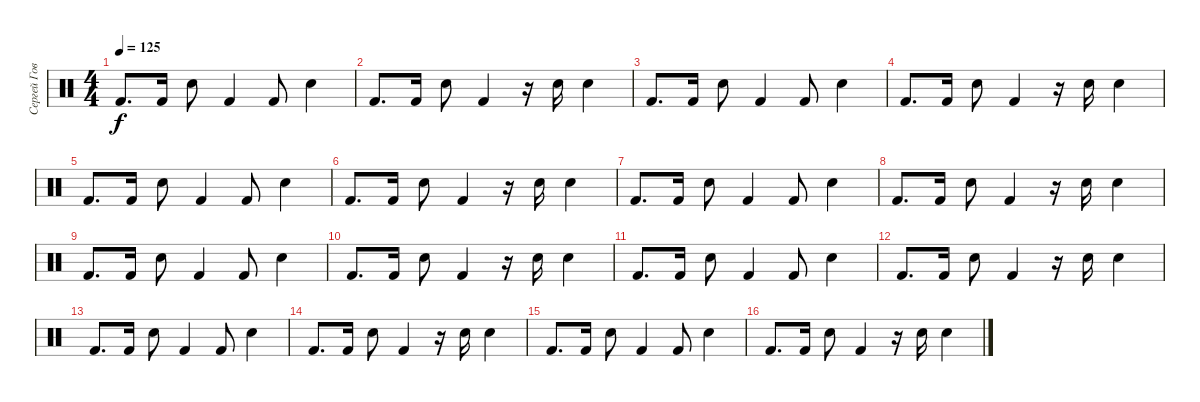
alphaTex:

\track ("Сергей Говорун" "Сергей Гов") {instrument percussion}
\staff {score}
\articulation defaults
\ts (4 4)
\tempo 125
\clef neutral
\ks c "Kick (hit) 2".8{d dy f} "Kick (hit) 2".16 "Electric Snare (hit)".8 "Kick (hit) 2".4 "Kick (hit) 2".8 "Electric Snare (hit)".4
|
"Kick (hit) 2".8{d} "Kick (hit) 2".16 "Electric Snare (hit)".8 "Kick (hit) 2".4 r.16 "Electric Snare (hit)".16 "Electric Snare (hit)".4 |
"Kick (hit) 2".8{d} "Kick (hit) 2".16 "Electric Snare (hit)".8 "Kick (hit) 2".4 "Kick (hit) 2".8 "Electric Snare (hit)".4 |
"Kick (hit) 2".8{d} "Kick (hit) 2".16 "Electric Snare (hit)".8 "Kick (hit) 2".4 r.16 "Electric Snare (hit)".16 "Electric Snare (hit)".4 |
"Kick (hit) 2".8{d} "Kick (hit) 2".16 "Electric Snare (hit)".8 "Kick (hit) 2".4 "Kick (hit) 2".8 "Electric Snare (hit)".4 |
"Kick (hit) 2".8{d} "Kick (hit) 2".16 "Electric Snare (hit)".8 "Kick (hit) 2".4 r.16 "Electric Snare (hit)".16 "Electric Snare (hit)".4 |
"Kick (hit) 2".8{d} "Kick (hit) 2".16 "Electric Snare (hit)".8 "Kick (hit) 2".4 "Kick (hit) 2".8 "Electric Snare (hit)".4 |
"Kick (hit) 2".8{d} "Kick (hit) 2".16 "Electric Snare (hit)".8 "Kick (hit) 2".4 r.16 "Electric Snare (hit)".16 "Electric Snare (hit)".4 |
"Kick (hit) 2".8{d} "Kick (hit) 2".16 "Electric Snare (hit)".8 "Kick (hit) 2".4 "Kick (hit) 2".8 "Electric Snare (hit)".4 |
"Kick (hit) 2".8{d} "Kick (hit) 2".16 "Electric Snare (hit)".8 "Kick (hit) 2".4 r.16 "Electric Snare (hit)".16 "Electric Snare (hit)".4 |
"Kick (hit) 2".8{d} "Kick (hit) 2".16 "Electric Snare (hit)".8 "Kick (hit) 2".4 "Kick (hit) 2".8 "Electric Snare (hit)".4 |
"Kick (hit) 2".8{d} "Kick (hit) 2".16 "Electric Snare (hit)".8 "Kick (hit) 2".4 r.16 "Electric Snare (hit)".16 "Electric Snare (hit)".4 |
"Kick (hit) 2".8{d} "Kick (hit) 2".16 "Electric Snare (hit)".8 "Kick (hit) 2".4 "Kick (hit) 2".8 "Electric Snare (hit)".4 |
"Kick (hit) 2".8{d} "Kick (hit) 2".16 "Electric Snare (hit)".8 "Kick (hit) 2".4 r.16 "Electric Snare (hit)".16 "Electric Snare (hit)".4 |
"Kick (hit) 2".8{d} "Kick (hit) 2".16 "Electric Snare (hit)".8 "Kick (hit) 2".4 "Kick (hit) 2".8 "Electric Snare (hit)".4 |
"Kick (hit) 2".8{d} "Kick (hit) 2".16 "Electric Snare (hit)".8 "Kick (hit) 2".4 r.16 "Electric Snare (hit)".16 "Electric Snare (hit)".4
